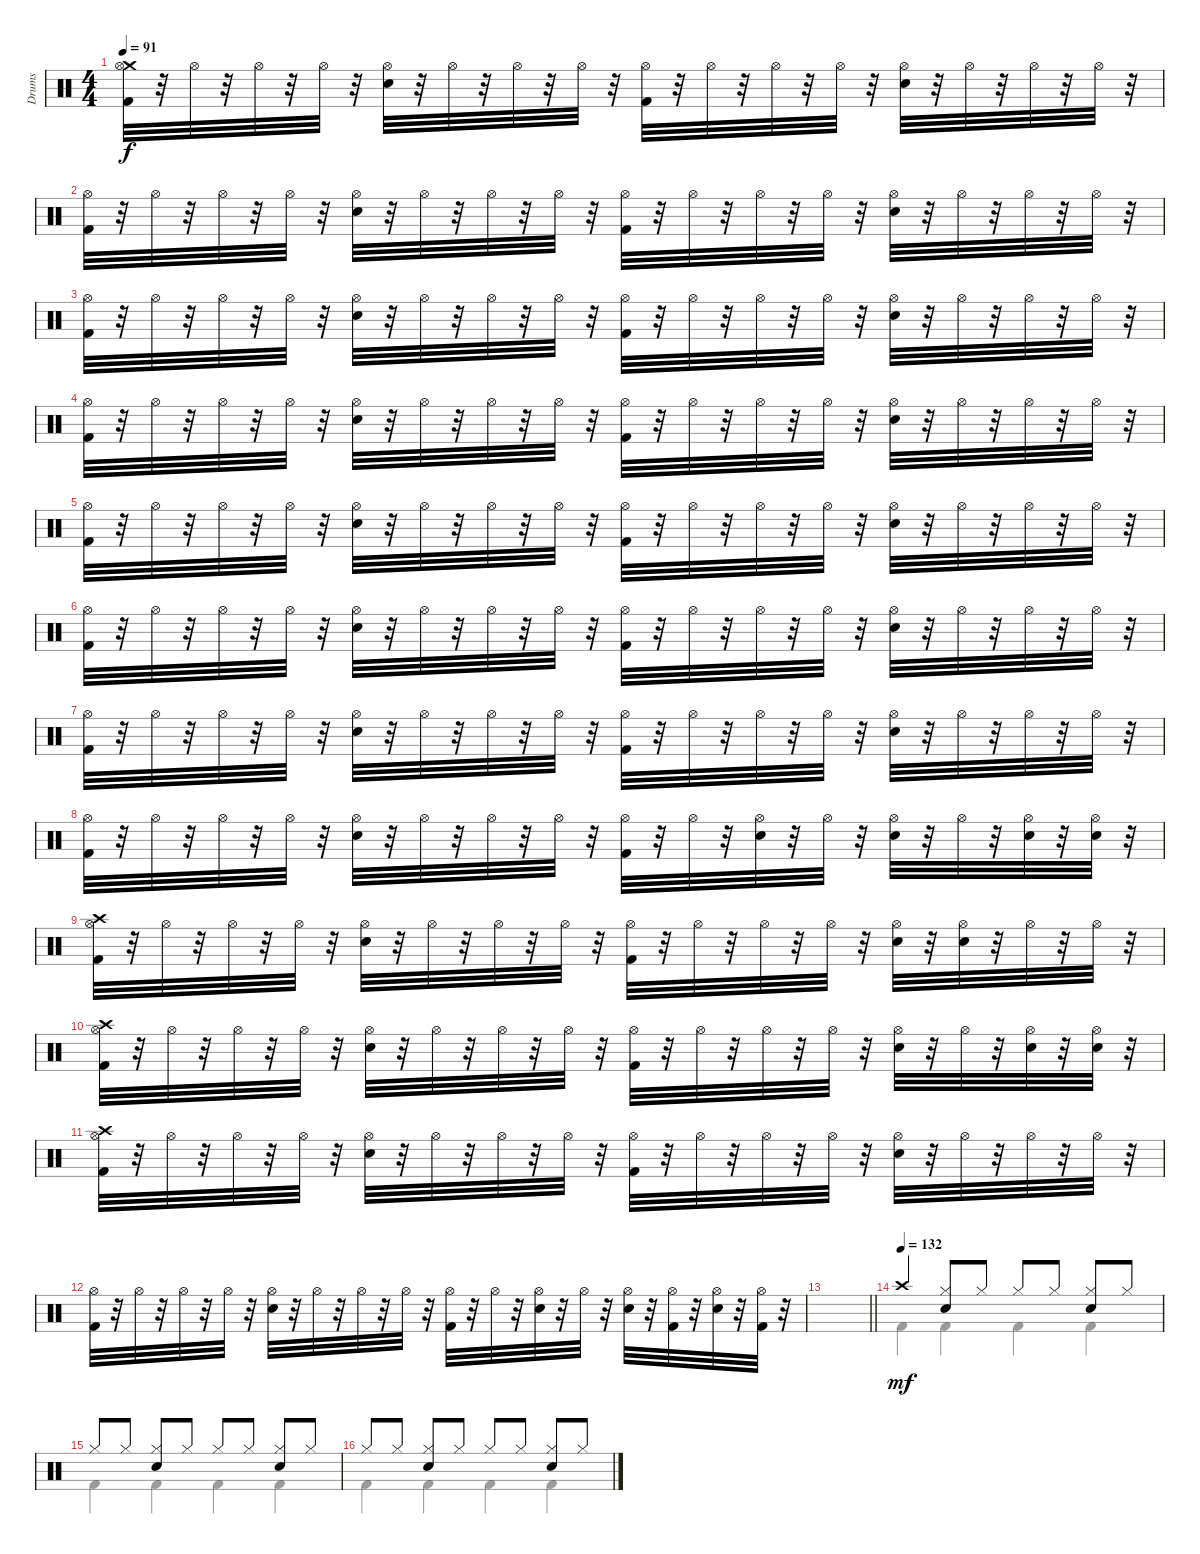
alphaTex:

\track ("Drums" "Drums") {instrument percussion}
\staff {score}
\articulation defaults
\voice
\ts (4 4)
\tempo 91
\clef neutral
\ks c
("Crash medium (hit)" "Kick (hit) 2" "Hi-Hat (open)").32{dy f} r.32 "Hi-Hat (open)".32 r.32 "Hi-Hat (open)".32 r.32 "Hi-Hat (open)".32 r.32 ("Snare (hit) 2" "Hi-Hat (open)").32 r.32 "Hi-Hat (open)".32 r.32 "Hi-Hat (open)".32 r.32 "Hi-Hat (open)".32 r.32 ("Kick (hit) 2" "Hi-Hat (open)").32 r.32 "Hi-Hat (open)".32 r.32 "Hi-Hat (open)".32 r.32 "Hi-Hat (open)".32 r.32 ("Snare (hit) 2" "Hi-Hat (open)").32 r.32 "Hi-Hat (open)".32 r.32 "Hi-Hat (open)".32 r.32 "Hi-Hat (open)".32 r.32 |
("Kick (hit) 2" "Hi-Hat (open)").32 r.32 "Hi-Hat (open)".32 r.32 "Hi-Hat (open)".32 r.32 "Hi-Hat (open)".32 r.32 ("Snare (hit) 2" "Hi-Hat (open)").32 r.32 "Hi-Hat (open)".32 r.32 "Hi-Hat (open)".32 r.32 "Hi-Hat (open)".32 r.32 ("Kick (hit) 2" "Hi-Hat (open)").32 r.32 "Hi-Hat (open)".32 r.32 "Hi-Hat (open)".32 r.32 "Hi-Hat (open)".32 r.32 ("Snare (hit) 2" "Hi-Hat (open)").32 r.32 "Hi-Hat (open)".32 r.32 "Hi-Hat (open)".32 r.32 "Hi-Hat (open)".32 r.32 |
("Kick (hit) 2" "Hi-Hat (open)").32 r.32 "Hi-Hat (open)".32 r.32 "Hi-Hat (open)".32 r.32 "Hi-Hat (open)".32 r.32 ("Snare (hit) 2" "Hi-Hat (open)").32 r.32 "Hi-Hat (open)".32 r.32 "Hi-Hat (open)".32 r.32 "Hi-Hat (open)".32 r.32 ("Kick (hit) 2" "Hi-Hat (open)").32 r.32 "Hi-Hat (open)".32 r.32 "Hi-Hat (open)".32 r.32 "Hi-Hat (open)".32 r.32 ("Snare (hit) 2" "Hi-Hat (open)").32 r.32 "Hi-Hat (open)".32 r.32 "Hi-Hat (open)".32 r.32 "Hi-Hat (open)".32 r.32 |
("Kick (hit) 2" "Hi-Hat (open)").32 r.32 "Hi-Hat (open)".32 r.32 "Hi-Hat (open)".32 r.32 "Hi-Hat (open)".32 r.32 ("Snare (hit) 2" "Hi-Hat (open)").32 r.32 "Hi-Hat (open)".32 r.32 "Hi-Hat (open)".32 r.32 "Hi-Hat (open)".32 r.32 ("Kick (hit) 2" "Hi-Hat (open)").32 r.32 "Hi-Hat (open)".32 r.32 "Hi-Hat (open)".32 r.32 "Hi-Hat (open)".32 r.32 ("Snare (hit) 2" "Hi-Hat (open)").32 r.32 "Hi-Hat (open)".32 r.32 "Hi-Hat (open)".32 r.32 "Hi-Hat (open)".32 r.32 |
("Kick (hit) 2" "Hi-Hat (open)").32 r.32 "Hi-Hat (open)".32 r.32 "Hi-Hat (open)".32 r.32 "Hi-Hat (open)".32 r.32 ("Snare (hit) 2" "Hi-Hat (open)").32 r.32 "Hi-Hat (open)".32 r.32 "Hi-Hat (open)".32 r.32 "Hi-Hat (open)".32 r.32 ("Kick (hit) 2" "Hi-Hat (open)").32 r.32 "Hi-Hat (open)".32 r.32 "Hi-Hat (open)".32 r.32 "Hi-Hat (open)".32 r.32 ("Snare (hit) 2" "Hi-Hat (open)").32 r.32 "Hi-Hat (open)".32 r.32 "Hi-Hat (open)".32 r.32 "Hi-Hat (open)".32 r.32 |
("Kick (hit) 2" "Hi-Hat (open)").32 r.32 "Hi-Hat (open)".32 r.32 "Hi-Hat (open)".32 r.32 "Hi-Hat (open)".32 r.32 ("Snare (hit) 2" "Hi-Hat (open)").32 r.32 "Hi-Hat (open)".32 r.32 "Hi-Hat (open)".32 r.32 "Hi-Hat (open)".32 r.32 ("Kick (hit) 2" "Hi-Hat (open)").32 r.32 "Hi-Hat (open)".32 r.32 "Hi-Hat (open)".32 r.32 "Hi-Hat (open)".32 r.32 ("Snare (hit) 2" "Hi-Hat (open)").32 r.32 "Hi-Hat (open)".32 r.32 "Hi-Hat (open)".32 r.32 "Hi-Hat (open)".32 r.32 |
("Kick (hit) 2" "Hi-Hat (open)").32 r.32 "Hi-Hat (open)".32 r.32 "Hi-Hat (open)".32 r.32 "Hi-Hat (open)".32 r.32 ("Snare (hit) 2" "Hi-Hat (open)").32 r.32 "Hi-Hat (open)".32 r.32 "Hi-Hat (open)".32 r.32 "Hi-Hat (open)".32 r.32 ("Kick (hit) 2" "Hi-Hat (open)").32 r.32 "Hi-Hat (open)".32 r.32 "Hi-Hat (open)".32 r.32 "Hi-Hat (open)".32 r.32 ("Snare (hit) 2" "Hi-Hat (open)").32 r.32 "Hi-Hat (open)".32 r.32 "Hi-Hat (open)".32 r.32 "Hi-Hat (open)".32 r.32 |
("Kick (hit) 2" "Hi-Hat (open)").32 r.32 "Hi-Hat (open)".32 r.32 "Hi-Hat (open)".32 r.32 "Hi-Hat (open)".32 r.32 ("Snare (hit) 2" "Hi-Hat (open)").32 r.32 "Hi-Hat (open)".32 r.32 "Hi-Hat (open)".32 r.32 "Hi-Hat (open)".32 r.32 ("Kick (hit) 2" "Hi-Hat (open)").32 r.32 "Hi-Hat (open)".32 r.32 ("Snare (hit) 2" "Hi-Hat (open)").32 r.32 "Hi-Hat (open)".32 r.32 ("Snare (hit) 2" "Hi-Hat (open)").32 r.32 "Hi-Hat (open)".32 r.32 ("Snare (hit) 2" "Hi-Hat (open)").32 r.32 ("Snare (hit) 2" "Hi-Hat (open)").32 r.32 |
("Crash high (hit)" "Kick (hit) 2" "Hi-Hat (open)").32 r.32 "Hi-Hat (open)".32 r.32 "Hi-Hat (open)".32 r.32 "Hi-Hat (open)".32 r.32 ("Snare (hit) 2" "Hi-Hat (open)").32 r.32 "Hi-Hat (open)".32 r.32 "Hi-Hat (open)".32 r.32 "Hi-Hat (open)".32 r.32 ("Kick (hit) 2" "Hi-Hat (open)").32 r.32 "Hi-Hat (open)".32 r.32 "Hi-Hat (open)".32 r.32 "Hi-Hat (open)".32 r.32 ("Snare (hit) 2" "Hi-Hat (open)").32 r.32 ("Snare (hit) 2" "Hi-Hat (open)").32 r.32 "Hi-Hat (open)".32 r.32 "Hi-Hat (open)".32 r.32 |
("Crash high (hit)" "Kick (hit) 2" "Hi-Hat (open)").32 r.32 "Hi-Hat (open)".32 r.32 "Hi-Hat (open)".32 r.32 "Hi-Hat (open)".32 r.32 ("Snare (hit) 2" "Hi-Hat (open)").32 r.32 "Hi-Hat (open)".32 r.32 "Hi-Hat (open)".32 r.32 "Hi-Hat (open)".32 r.32 ("Kick (hit) 2" "Hi-Hat (open)").32 r.32 "Hi-Hat (open)".32 r.32 "Hi-Hat (open)".32 r.32 "Hi-Hat (open)".32 r.32 ("Snare (hit) 2" "Hi-Hat (open)").32 r.32 "Hi-Hat (open)".32 r.32 ("Snare (hit) 2" "Hi-Hat (open)").32 r.32 ("Snare (hit) 2" "Hi-Hat (open)").32 r.32 |
("Crash high (hit)" "Kick (hit) 2" "Hi-Hat (open)").32 r.32 "Hi-Hat (open)".32 r.32 "Hi-Hat (open)".32 r.32 "Hi-Hat (open)".32 r.32 ("Snare (hit) 2" "Hi-Hat (open)").32 r.32 "Hi-Hat (open)".32 r.32 "Hi-Hat (open)".32 r.32 "Hi-Hat (open)".32 r.32 ("Kick (hit) 2" "Hi-Hat (open)").32 r.32 "Hi-Hat (open)".32 r.32 "Hi-Hat (open)".32 r.32 "Hi-Hat (open)".32 r.32 ("Snare (hit) 2" "Hi-Hat (open)").32 r.32 "Hi-Hat (open)".32 r.32 "Hi-Hat (open)".32 r.32 "Hi-Hat (open)".32 r.32 |
("Kick (hit) 2" "Hi-Hat (open)").32 r.32 "Hi-Hat (open)".32 r.32 "Hi-Hat (open)".32 r.32 "Hi-Hat (open)".32 r.32 ("Snare (hit) 2" "Hi-Hat (open)").32 r.32 "Hi-Hat (open)".32 r.32 "Hi-Hat (open)".32 r.32 "Hi-Hat (open)".32 r.32 ("Kick (hit) 2" "Hi-Hat (open)").32 r.32 "Hi-Hat (open)".32 r.32 ("Snare (hit) 2" "Hi-Hat (open)").32 r.32 "Hi-Hat (open)".32 r.32 ("Snare (hit) 2" "Hi-Hat (open)").32 r.32 ("Kick (hit) 2" "Hi-Hat (open)").32 r.32 ("Snare (hit) 2" "Hi-Hat (open)").32 r.32 ("Kick (hit) 2" "Hi-Hat (open)").32 r.32 |
\barLineRight lightlight
|
\tempo (132)
"Crash high (hit)".4{dy mf} ("Hi-Hat (closed)" "Snare (hit) 2").8 "Hi-Hat (closed)".8 "Hi-Hat (closed)".8 "Hi-Hat (closed)".8 ("Hi-Hat (closed)" "Snare (hit) 2").8 "Hi-Hat (closed)".8 |
"Hi-Hat (closed)".8 "Hi-Hat (closed)".8 ("Hi-Hat (closed)" "Snare (hit) 2").8 "Hi-Hat (closed)".8 "Hi-Hat (closed)".8 "Hi-Hat (closed)".8 ("Hi-Hat (closed)" "Snare (hit) 2").8 "Hi-Hat (closed)".8 |
"Hi-Hat (closed)".8 "Hi-Hat (closed)".8 ("Hi-Hat (closed)" "Snare (hit) 2").8 "Hi-Hat (closed)".8 "Hi-Hat (closed)".8 "Hi-Hat (closed)".8 ("Hi-Hat (closed)" "Snare (hit) 2").8 "Hi-Hat (closed)".8
\voice
\clef neutral
\ottava regular
\simile none
\ks c
|
|
|
|
|
|
|
|
|
|
|
|
\barLineRight lightlight
|
"Kick (hit) 2".4 "Kick (hit) 2".4 "Kick (hit) 2".4 "Kick (hit) 2".4 |
"Kick (hit) 2".4 "Kick (hit) 2".4 "Kick (hit) 2".4 "Kick (hit) 2".4 |
"Kick (hit) 2".4 "Kick (hit) 2".4 "Kick (hit) 2".4 "Kick (hit) 2".4
